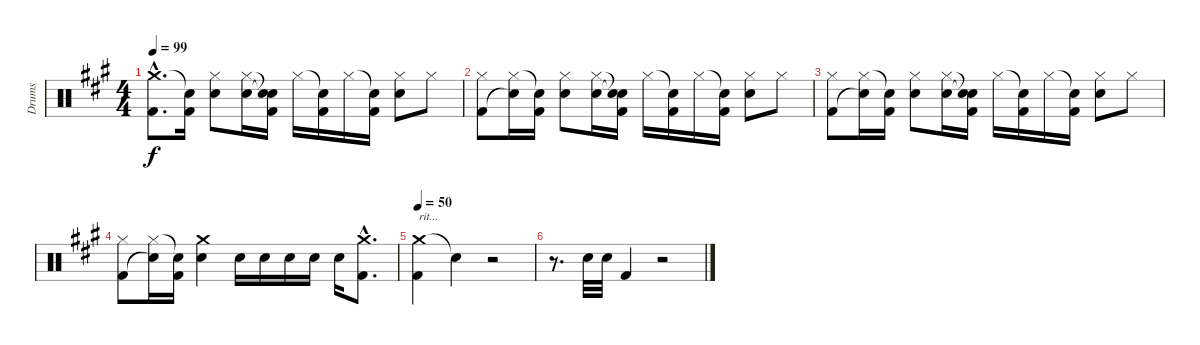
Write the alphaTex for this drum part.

\track ("Drums" "Drums") {instrument percussion}
\staff {score}
\articulation defaults
\ts (4 4)
\tempo 99
\clef neutral
\ks a
("Crash medium (hit)"{hac} "Kick (hit) 2"{hac}).8{d dy f} ("Snare (hit)"{t} "Kick (hit) 2").16 ("Hi-Hat (closed)" "Electric Snare (hit)").8 ("Hi-Hat (closed)" "Electric Snare (hit)").16 ("Snare (hit)"{t} "Snare (hit)"{t} "Kick (hit) 2").16 "Hi-Hat (closed)".16 ("Snare (hit)"{t} "Kick (hit) 2").16 "Hi-Hat (closed)".16 ("Snare (hit)"{t} "Kick (hit) 2").16 ("Hi-Hat (closed)" "Electric Snare (hit)").8 "Hi-Hat (closed)".8 |
("Hi-Hat (closed)" "Kick (hit) 2").8 ("Hi-Hat (closed)" "Snare (hit)"{t}).16 ("Snare (hit)"{t} "Kick (hit) 2").16 ("Hi-Hat (closed)" "Electric Snare (hit)").8 ("Hi-Hat (closed)" "Electric Snare (hit)").16 ("Snare (hit)"{t} "Snare (hit)"{t} "Kick (hit) 2").16 "Hi-Hat (closed)".16 ("Snare (hit)"{t} "Kick (hit) 2").16 "Hi-Hat (closed)".16 ("Snare (hit)"{t} "Kick (hit) 2").16 ("Hi-Hat (closed)" "Electric Snare (hit)").8 "Hi-Hat (closed)".8 |
("Hi-Hat (closed)" "Kick (hit) 2").8 ("Hi-Hat (closed)" "Snare (hit)"{t}).16 ("Snare (hit)"{t} "Kick (hit) 2").16 ("Hi-Hat (closed)" "Electric Snare (hit)").8 ("Hi-Hat (closed)" "Electric Snare (hit)").16 ("Snare (hit)"{t} "Snare (hit)"{t} "Kick (hit) 2").16 "Hi-Hat (closed)".16 ("Snare (hit)"{t} "Kick (hit) 2").16 "Hi-Hat (closed)".16 ("Snare (hit)"{t} "Kick (hit) 2").16 ("Hi-Hat (closed)" "Electric Snare (hit)").8 "Hi-Hat (closed)".8 |
("Hi-Hat (closed)" "Kick (hit) 2").8 ("Hi-Hat (closed)" "Snare (hit)"{t}).16 ("Snare (hit)"{t} "Kick (hit) 2").16 ("Crash medium (hit)" "Electric Snare (hit)").4 "Electric Snare (hit)".16 "Electric Snare (hit)".16 "Electric Snare (hit)".16 "Electric Snare (hit)".16 "Electric Snare (hit)".16 ("Crash medium (hit)"{hac} "Kick (hit) 2"{hac}).8{d} |
\tempo 50
("Crash medium (hit)" "Kick (hit) 2").4{txt "rit..."} "Snare (hit)"{t}.4 r.2 |
r.8{d} "Electric Snare (hit)".32 "Electric Snare (hit)".32 "Kick (hit) 2".4 r.2
